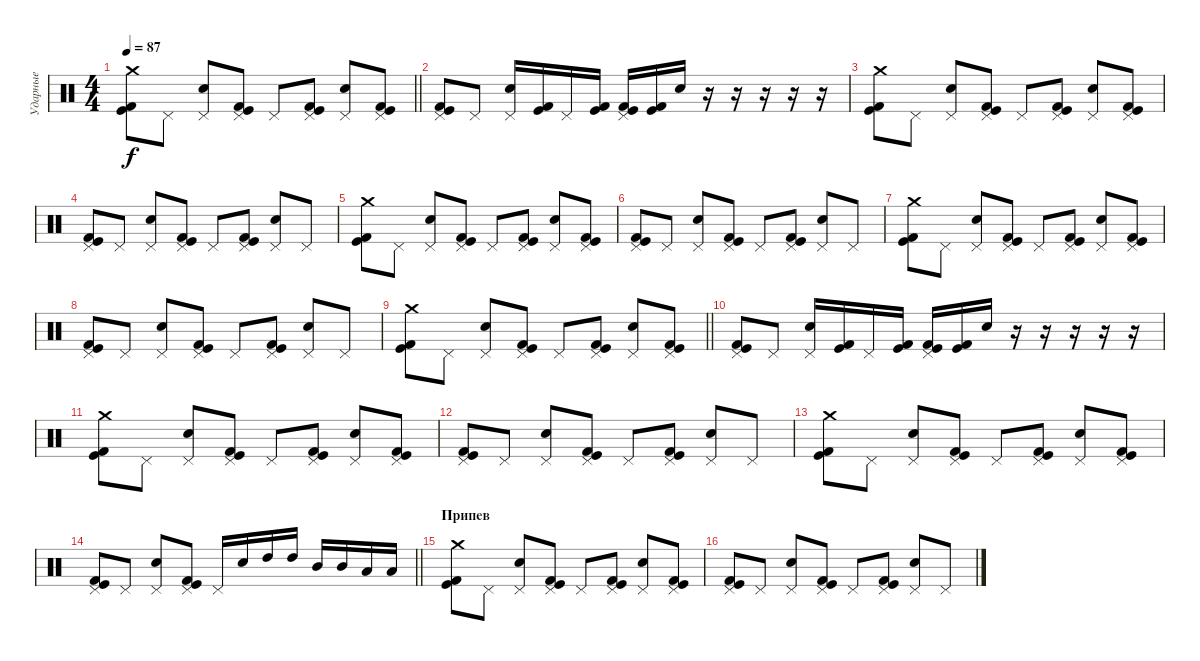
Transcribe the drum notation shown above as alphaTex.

\track ("Ударные" "Ударные") {instrument percussion}
\staff {score}
\articulation defaults
\ts (4 4)
\tempo 87
\clef neutral
\barLineRight lightlight
\ks c
("Crash medium (hit)" "Kick (hit)" "Kick (hit) 2").8{dy f} "Pedal Hi-Hat (hit)".8 ("Pedal Hi-Hat (hit)" "Electric Snare (hit)").8 ("Pedal Hi-Hat (hit)" "Kick (hit)" "Kick (hit) 2").8 "Pedal Hi-Hat (hit)".8 ("Pedal Hi-Hat (hit)" "Kick (hit)" "Kick (hit) 2").8 ("Pedal Hi-Hat (hit)" "Electric Snare (hit)").8 ("Pedal Hi-Hat (hit)" "Kick (hit)" "Kick (hit) 2").8 |
\section ("" "")
("Pedal Hi-Hat (hit)" "Kick (hit)" "Kick (hit) 2").8 "Pedal Hi-Hat (hit)".8 ("Pedal Hi-Hat (hit)" "Electric Snare (hit)").16 ("Kick (hit)" "Kick (hit) 2").16 "Pedal Hi-Hat (hit)".16 ("Kick (hit)" "Kick (hit) 2").16 ("Pedal Hi-Hat (hit)" "Kick (hit)" "Kick (hit) 2").16 ("Kick (hit)" "Kick (hit) 2").16 "Electric Snare (hit)".16 r.16 r.16 r.16 r.16 r.16 |
("Crash medium (hit)" "Kick (hit)" "Kick (hit) 2").8 "Pedal Hi-Hat (hit)".8 ("Pedal Hi-Hat (hit)" "Electric Snare (hit)").8 ("Pedal Hi-Hat (hit)" "Kick (hit)" "Kick (hit) 2").8 "Pedal Hi-Hat (hit)".8 ("Pedal Hi-Hat (hit)" "Kick (hit)" "Kick (hit) 2").8 ("Pedal Hi-Hat (hit)" "Electric Snare (hit)").8 ("Pedal Hi-Hat (hit)" "Kick (hit)" "Kick (hit) 2").8 |
("Pedal Hi-Hat (hit)" "Kick (hit)" "Kick (hit) 2").8 "Pedal Hi-Hat (hit)".8 ("Pedal Hi-Hat (hit)" "Electric Snare (hit)").8 ("Pedal Hi-Hat (hit)" "Kick (hit)" "Kick (hit) 2").8 "Pedal Hi-Hat (hit)".8 ("Pedal Hi-Hat (hit)" "Kick (hit)" "Kick (hit) 2").8 ("Pedal Hi-Hat (hit)" "Electric Snare (hit)").8 "Pedal Hi-Hat (hit)".8 |
("Crash medium (hit)" "Kick (hit)" "Kick (hit) 2").8 "Pedal Hi-Hat (hit)".8 ("Pedal Hi-Hat (hit)" "Electric Snare (hit)").8 ("Pedal Hi-Hat (hit)" "Kick (hit)" "Kick (hit) 2").8 "Pedal Hi-Hat (hit)".8 ("Pedal Hi-Hat (hit)" "Kick (hit)" "Kick (hit) 2").8 ("Pedal Hi-Hat (hit)" "Electric Snare (hit)").8 ("Pedal Hi-Hat (hit)" "Kick (hit)" "Kick (hit) 2").8 |
("Pedal Hi-Hat (hit)" "Kick (hit)" "Kick (hit) 2").8 "Pedal Hi-Hat (hit)".8 ("Pedal Hi-Hat (hit)" "Electric Snare (hit)").8 ("Pedal Hi-Hat (hit)" "Kick (hit)" "Kick (hit) 2").8 "Pedal Hi-Hat (hit)".8 ("Pedal Hi-Hat (hit)" "Kick (hit)" "Kick (hit) 2").8 ("Pedal Hi-Hat (hit)" "Electric Snare (hit)").8 "Pedal Hi-Hat (hit)".8 |
("Crash medium (hit)" "Kick (hit)" "Kick (hit) 2").8 "Pedal Hi-Hat (hit)".8 ("Pedal Hi-Hat (hit)" "Electric Snare (hit)").8 ("Pedal Hi-Hat (hit)" "Kick (hit)" "Kick (hit) 2").8 "Pedal Hi-Hat (hit)".8 ("Pedal Hi-Hat (hit)" "Kick (hit)" "Kick (hit) 2").8 ("Pedal Hi-Hat (hit)" "Electric Snare (hit)").8 ("Pedal Hi-Hat (hit)" "Kick (hit)" "Kick (hit) 2").8 |
("Pedal Hi-Hat (hit)" "Kick (hit)" "Kick (hit) 2").8 "Pedal Hi-Hat (hit)".8 ("Pedal Hi-Hat (hit)" "Electric Snare (hit)").8 ("Pedal Hi-Hat (hit)" "Kick (hit)" "Kick (hit) 2").8 "Pedal Hi-Hat (hit)".8 ("Pedal Hi-Hat (hit)" "Kick (hit)" "Kick (hit) 2").8 ("Pedal Hi-Hat (hit)" "Electric Snare (hit)").8 "Pedal Hi-Hat (hit)".8 |
\barLineRight lightlight
("Crash medium (hit)" "Kick (hit)" "Kick (hit) 2").8 "Pedal Hi-Hat (hit)".8 ("Pedal Hi-Hat (hit)" "Electric Snare (hit)").8 ("Pedal Hi-Hat (hit)" "Kick (hit)" "Kick (hit) 2").8 "Pedal Hi-Hat (hit)".8 ("Pedal Hi-Hat (hit)" "Kick (hit)" "Kick (hit) 2").8 ("Pedal Hi-Hat (hit)" "Electric Snare (hit)").8 ("Pedal Hi-Hat (hit)" "Kick (hit)" "Kick (hit) 2").8 |
("Pedal Hi-Hat (hit)" "Kick (hit)" "Kick (hit) 2").8 "Pedal Hi-Hat (hit)".8 ("Pedal Hi-Hat (hit)" "Electric Snare (hit)").16 ("Kick (hit)" "Kick (hit) 2").16 "Pedal Hi-Hat (hit)".16 ("Kick (hit)" "Kick (hit) 2").16 ("Pedal Hi-Hat (hit)" "Kick (hit)" "Kick (hit) 2").16 ("Kick (hit)" "Kick (hit) 2").16 "Electric Snare (hit)".16 r.16 r.16 r.16 r.16 r.16 |
("Crash medium (hit)" "Kick (hit)" "Kick (hit) 2").8 "Pedal Hi-Hat (hit)".8 ("Pedal Hi-Hat (hit)" "Electric Snare (hit)").8 ("Pedal Hi-Hat (hit)" "Kick (hit)" "Kick (hit) 2").8 "Pedal Hi-Hat (hit)".8 ("Pedal Hi-Hat (hit)" "Kick (hit)" "Kick (hit) 2").8 ("Pedal Hi-Hat (hit)" "Electric Snare (hit)").8 ("Pedal Hi-Hat (hit)" "Kick (hit)" "Kick (hit) 2").8 |
("Pedal Hi-Hat (hit)" "Kick (hit)" "Kick (hit) 2").8 "Pedal Hi-Hat (hit)".8 ("Pedal Hi-Hat (hit)" "Electric Snare (hit)").8 ("Pedal Hi-Hat (hit)" "Kick (hit)" "Kick (hit) 2").8 "Pedal Hi-Hat (hit)".8 ("Pedal Hi-Hat (hit)" "Kick (hit)" "Kick (hit) 2").8 ("Pedal Hi-Hat (hit)" "Electric Snare (hit)").8 "Pedal Hi-Hat (hit)".8 |
("Crash medium (hit)" "Kick (hit)" "Kick (hit) 2").8 "Pedal Hi-Hat (hit)".8 ("Pedal Hi-Hat (hit)" "Electric Snare (hit)").8 ("Pedal Hi-Hat (hit)" "Kick (hit)" "Kick (hit) 2").8 "Pedal Hi-Hat (hit)".8 ("Pedal Hi-Hat (hit)" "Kick (hit)" "Kick (hit) 2").8 ("Pedal Hi-Hat (hit)" "Electric Snare (hit)").8 ("Pedal Hi-Hat (hit)" "Kick (hit)" "Kick (hit) 2").8 |
\barLineRight lightlight
("Pedal Hi-Hat (hit)" "Kick (hit)" "Kick (hit) 2").8 "Pedal Hi-Hat (hit)".8 ("Pedal Hi-Hat (hit)" "Electric Snare (hit)").8 ("Pedal Hi-Hat (hit)" "Kick (hit)" "Kick (hit) 2").8 "Pedal Hi-Hat (hit)".16 "Electric Snare (hit)".16 "High Tom (hit)".16 "High Tom (hit)".16 "Mid Tom (hit)".16 "Mid Tom (hit)".16 "Low Tom (hit)".16 "Low Tom (hit)".16 |
\section ("" "Припев")
("Crash medium (hit)" "Kick (hit)" "Kick (hit) 2").8 "Pedal Hi-Hat (hit)".8 ("Pedal Hi-Hat (hit)" "Electric Snare (hit)").8 ("Pedal Hi-Hat (hit)" "Kick (hit)" "Kick (hit) 2").8 "Pedal Hi-Hat (hit)".8 ("Pedal Hi-Hat (hit)" "Kick (hit)" "Kick (hit) 2").8 ("Pedal Hi-Hat (hit)" "Electric Snare (hit)").8 ("Pedal Hi-Hat (hit)" "Kick (hit)" "Kick (hit) 2").8 |
("Pedal Hi-Hat (hit)" "Kick (hit)" "Kick (hit) 2").8 "Pedal Hi-Hat (hit)".8 ("Pedal Hi-Hat (hit)" "Electric Snare (hit)").8 ("Pedal Hi-Hat (hit)" "Kick (hit)" "Kick (hit) 2").8 "Pedal Hi-Hat (hit)".8 ("Pedal Hi-Hat (hit)" "Kick (hit)" "Kick (hit) 2").8 ("Pedal Hi-Hat (hit)" "Electric Snare (hit)").8 "Pedal Hi-Hat (hit)".8
